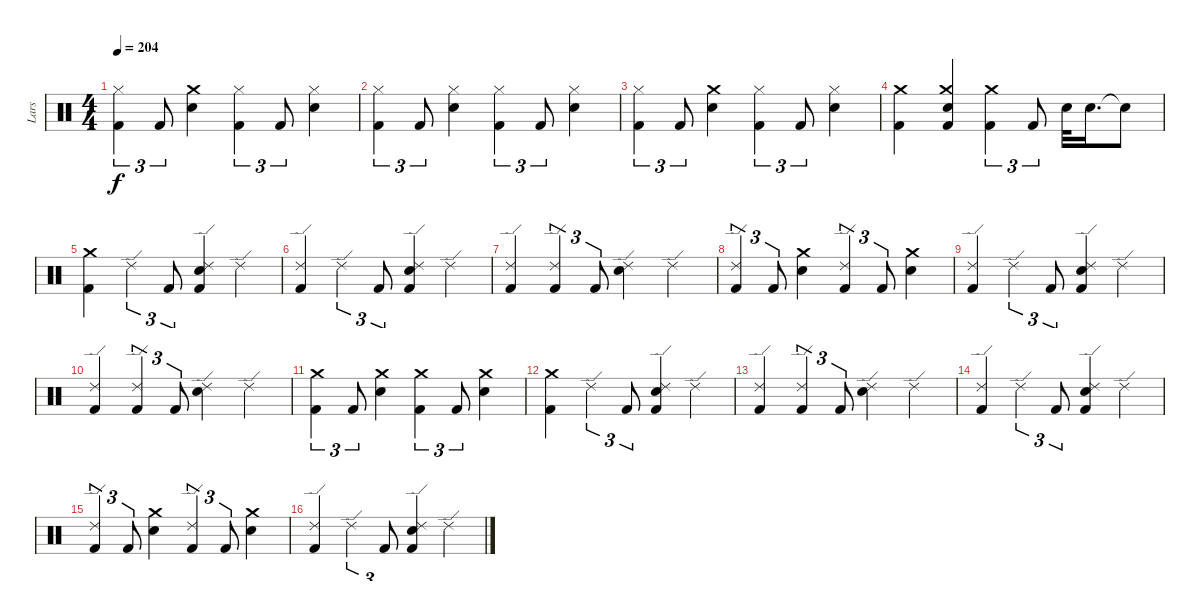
\track ("Lars" "Lars") {instrument percussion}
\staff {score}
\articulation defaults
\ts (4 4)
\tempo 204
\clef neutral
\ks c
("Kick (hit) 2" "Hi-Hat (closed)").4{tu (3 2) dy f} "Kick (hit) 2".8{tu (3 2)} ("Crash medium (hit)" "Snare (hit) 2").4 ("Kick (hit) 2" "Hi-Hat (closed)").4{tu (3 2)} "Kick (hit) 2".8{tu (3 2)} ("Snare (hit) 2" "Hi-Hat (closed)").4 |
("Kick (hit) 2" "Hi-Hat (closed)").4{tu (3 2)} "Kick (hit) 2".8{tu (3 2)} ("Snare (hit) 2" "Hi-Hat (closed)").4 ("Kick (hit) 2" "Hi-Hat (closed)").4{tu (3 2)} "Kick (hit) 2".8{tu (3 2)} ("Snare (hit) 2" "Hi-Hat (closed)").4 |
("Kick (hit) 2" "Hi-Hat (closed)").4{tu (3 2)} "Kick (hit) 2".8{tu (3 2)} ("Crash medium (hit)" "Snare (hit) 2").4 ("Kick (hit) 2" "Hi-Hat (closed)").4{tu (3 2)} "Kick (hit) 2".8{tu (3 2)} ("Snare (hit) 2" "Hi-Hat (closed)").4 |
("Kick (hit) 2" "Crash medium (hit)").4 ("Kick (hit) 2" "Snare (hit) 2" "Crash medium (hit)").4 ("Kick (hit) 2" "Crash medium (hit)").4{tu (3 2)} "Kick (hit) 2".8{tu (3 2)} "Snare (hit) 2".32 "Snare (hit) 2".16{d} "Snare (hit)"{t}.8 |
("Kick (hit) 2" "Crash medium (hit)").4 "Ride (edge) 2".4{tu (3 2)} "Kick (hit) 2".8{tu (3 2)} ("Kick (hit) 2" "Snare (hit) 2" "Ride (edge) 2").4 "Ride (edge) 2".4 |
("Kick (hit) 2" "Ride (edge) 2").4 "Ride (edge) 2".4{tu (3 2)} "Kick (hit) 2".8{tu (3 2)} ("Kick (hit) 2" "Snare (hit) 2" "Ride (edge) 2").4 "Ride (edge) 2".4 |
("Kick (hit) 2" "Ride (edge) 2").4 ("Kick (hit) 2" "Ride (edge) 2").4{tu (3 2)} "Kick (hit) 2".8{tu (3 2)} ("Ride (edge) 2" "Snare (hit) 2").4 "Ride (edge) 2".4 |
("Ride (edge) 2" "Kick (hit) 2").4{tu (3 2)} "Kick (hit) 2".8{tu (3 2)} ("Snare (hit) 2" "Crash medium (hit)").4 ("Ride (edge) 2" "Kick (hit) 2").4{tu (3 2)} "Kick (hit) 2".8{tu (3 2)} ("Snare (hit) 2" "Crash medium (hit)").4 |
("Ride (edge) 2" "Kick (hit) 2").4 "Ride (edge) 2".4{tu (3 2)} "Kick (hit) 2".8{tu (3 2)} ("Ride (edge) 2" "Snare (hit) 2" "Kick (hit) 2").4 "Ride (edge) 2".4 |
("Kick (hit) 2" "Ride (edge) 2").4 ("Ride (edge) 2" "Kick (hit) 2").4{tu (3 2)} "Kick (hit) 2".8{tu (3 2)} ("Snare (hit) 2" "Ride (edge) 2").4 "Ride (edge) 2".4 |
("Kick (hit) 2" "Crash medium (hit)").4{tu (3 2)} "Kick (hit) 2".8{tu (3 2)} ("Snare (hit) 2" "Crash medium (hit)").4 ("Kick (hit) 2" "Crash medium (hit)").4{tu (3 2)} "Kick (hit) 2".8{tu (3 2)} ("Snare (hit) 2" "Crash medium (hit)").4 |
("Kick (hit) 2" "Crash medium (hit)").4 "Ride (edge) 2".4{tu (3 2)} "Kick (hit) 2".8{tu (3 2)} ("Kick (hit) 2" "Snare (hit) 2" "Ride (edge) 2").4 "Ride (edge) 2".4 |
("Kick (hit) 2" "Ride (edge) 2").4 ("Ride (edge) 2" "Kick (hit) 2").4{tu (3 2)} "Kick (hit) 2".8{tu (3 2)} ("Snare (hit) 2" "Ride (edge) 2").4 "Ride (edge) 2".4 |
("Kick (hit) 2" "Ride (edge) 2").4 "Ride (edge) 2".4{tu (3 2)} "Kick (hit) 2".8{tu (3 2)} ("Ride (edge) 2" "Snare (hit) 2" "Kick (hit) 2").4 "Ride (edge) 2".4 |
("Ride (edge) 2" "Kick (hit) 2").4{tu (3 2)} "Kick (hit) 2".8{tu (3 2)} ("Snare (hit) 2" "Crash medium (hit)").4 ("Ride (edge) 2" "Kick (hit) 2").4{tu (3 2)} "Kick (hit) 2".8{tu (3 2)} ("Snare (hit) 2" "Crash medium (hit)").4 |
("Ride (edge) 2" "Kick (hit) 2").4 "Ride (edge) 2".4{tu (3 2)} "Kick (hit) 2".8{tu (3 2)} ("Ride (edge) 2" "Snare (hit) 2" "Kick (hit) 2").4 "Ride (edge) 2".4
